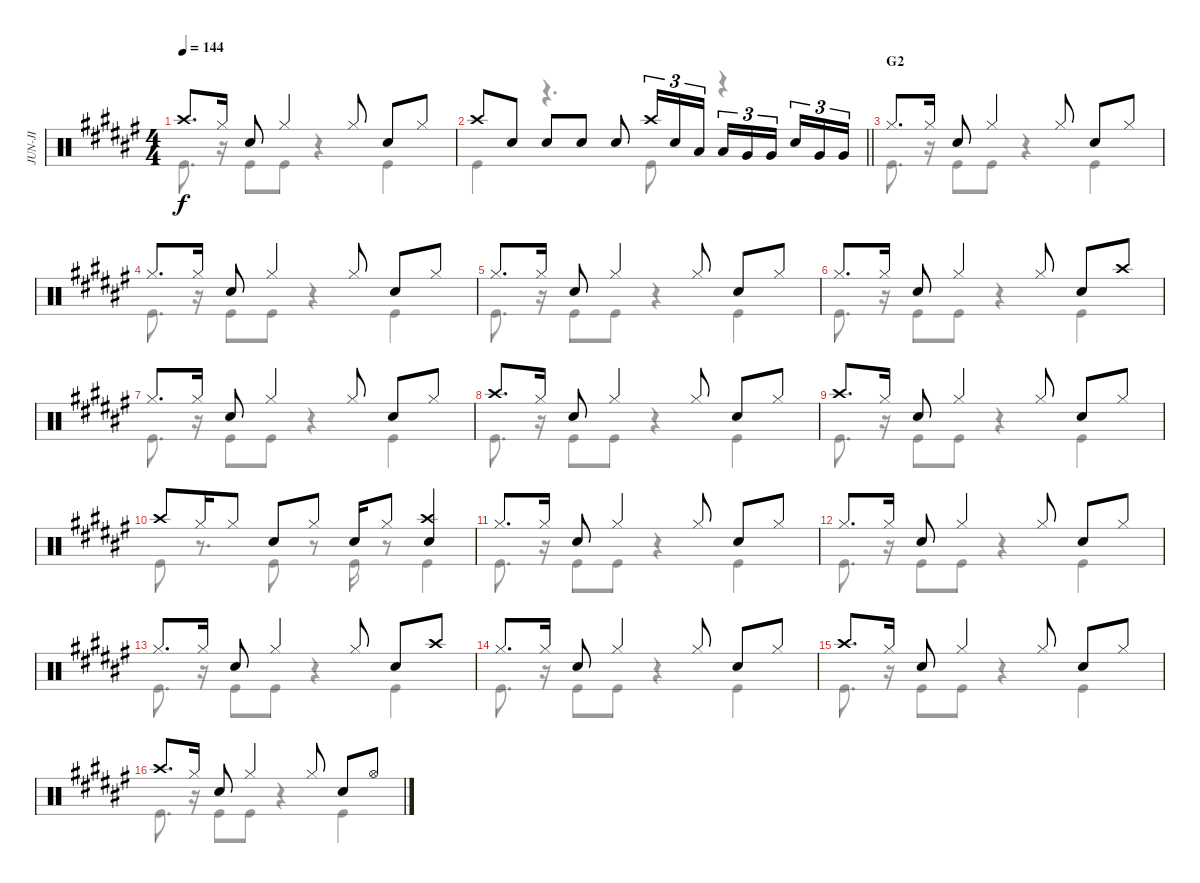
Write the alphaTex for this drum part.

\track ("JUN-JI" "JUN-JI") {instrument percussion}
\staff {score}
\articulation defaults
\voice
\ts (4 4)
\tempo 144
\clef neutral
\ks d#minor "Crash high (hit)".8{d dy f} "Hi-Hat (closed)".16 "Snare (hit) 2".8 "Hi-Hat (closed)".4 "Hi-Hat (closed)".8 "Snare (hit) 2".8 "Hi-Hat (closed)".8
|
\barLineRight lightlight "Crash high (hit)".8 "Snare (hit) 2".8 "Snare (hit) 2".8 "Snare (hit) 2".8 "Snare (hit) 2".8 "Crash high (hit)".16{tu (3 2)} "Snare (hit) 2".16{tu (3 2)} "Low Tom (hit)".16{tu (3 2)} "Low Tom (hit)".16{tu (3 2)} "Very Low Tom (hit)".16{tu (3 2)} "Very Low Tom (hit)".16{tu (3 2) beam splitsecondary} "Snare (hit) 2".16{tu (3 2)} "Very Low Tom (hit)".16{tu (3 2)} "Very Low Tom (hit)".16{tu (3 2)}
|
\section ("" "G2")
"Hi-Hat (closed)".8{d} "Hi-Hat (closed)".16 "Snare (hit) 2".8 "Hi-Hat (closed)".4 "Hi-Hat (closed)".8 "Snare (hit) 2".8 "Hi-Hat (closed)".8 |
"Hi-Hat (closed)".8{d} "Hi-Hat (closed)".16 "Snare (hit) 2".8 "Hi-Hat (closed)".4 "Hi-Hat (closed)".8 "Snare (hit) 2".8 "Hi-Hat (closed)".8 |
"Hi-Hat (closed)".8{d} "Hi-Hat (closed)".16 "Snare (hit) 2".8 "Hi-Hat (closed)".4 "Hi-Hat (closed)".8 "Snare (hit) 2".8 "Hi-Hat (closed)".8 |
"Hi-Hat (closed)".8{d} "Hi-Hat (closed)".16 "Snare (hit) 2".8 "Hi-Hat (closed)".4 "Hi-Hat (closed)".8 "Snare (hit) 2".8 "Crash high (hit)".8 |
"Hi-Hat (closed)".8{d} "Hi-Hat (closed)".16 "Snare (hit) 2".8 "Hi-Hat (closed)".4 "Hi-Hat (closed)".8 "Snare (hit) 2".8 "Hi-Hat (closed)".8 |
"Crash high (hit)".8{d} "Hi-Hat (closed)".16 "Snare (hit) 2".8 "Hi-Hat (closed)".4 "Hi-Hat (closed)".8 "Snare (hit) 2".8 "Hi-Hat (closed)".8 |
"Crash high (hit)".8{d} "Hi-Hat (closed)".16 "Snare (hit) 2".8 "Hi-Hat (closed)".4 "Hi-Hat (closed)".8 "Snare (hit) 2".8 "Hi-Hat (closed)".8 |
"Crash high (hit)".8 "Hi-Hat (closed)".16 "Hi-Hat (closed)".8 "Snare (hit) 2".8 "Hi-Hat (closed)".8 "Snare (hit) 2".16 "Hi-Hat (closed)".8 ("Crash high (hit)" "Snare (hit) 2").4 |
"Hi-Hat (closed)".8{d} "Hi-Hat (closed)".16 "Snare (hit) 2".8 "Hi-Hat (closed)".4 "Hi-Hat (closed)".8 "Snare (hit) 2".8 "Hi-Hat (closed)".8 |
"Hi-Hat (closed)".8{d} "Hi-Hat (closed)".16 "Snare (hit) 2".8 "Hi-Hat (closed)".4 "Hi-Hat (closed)".8 "Snare (hit) 2".8 "Hi-Hat (closed)".8 |
"Hi-Hat (closed)".8{d} "Hi-Hat (closed)".16 "Snare (hit) 2".8 "Hi-Hat (closed)".4 "Hi-Hat (closed)".8 "Snare (hit) 2".8 "Crash high (hit)".8 |
"Hi-Hat (closed)".8{d} "Hi-Hat (closed)".16 "Snare (hit) 2".8 "Hi-Hat (closed)".4 "Hi-Hat (closed)".8 "Snare (hit) 2".8 "Hi-Hat (closed)".8 |
"Crash high (hit)".8{d} "Hi-Hat (closed)".16 "Snare (hit) 2".8 "Hi-Hat (closed)".4 "Hi-Hat (closed)".8 "Snare (hit) 2".8 "Hi-Hat (closed)".8 |
"Crash high (hit)".8{d} "Hi-Hat (closed)".16 "Snare (hit) 2".8 "Hi-Hat (closed)".4 "Hi-Hat (closed)".8 "Snare (hit) 2".8 "Hi-Hat (open)".8
\voice
\clef neutral
\ottava regular
\simile none
\ks d#minor "Kick (hit)".8{d dy f}
r.16 "Kick (hit)".8 "Kick (hit)".8 r.4 "Kick (hit)".4 |
\barLineRight lightlight "Kick (hit)".4
r.4{d} "Kick (hit)".8 r.4 |
"Kick (hit)".8{d} r.16 "Kick (hit)".8 "Kick (hit)".8 r.4 "Kick (hit)".4 |
"Kick (hit)".8{d} r.16 "Kick (hit)".8 "Kick (hit)".8 r.4 "Kick (hit)".4 |
"Kick (hit)".8{d} r.16 "Kick (hit)".8 "Kick (hit)".8 r.4 "Kick (hit)".4 |
"Kick (hit)".8{d} r.16 "Kick (hit)".8 "Kick (hit)".8 r.4 "Kick (hit)".4 |
"Kick (hit)".8{d} r.16 "Kick (hit)".8 "Kick (hit)".8 r.4 "Kick (hit)".4 |
"Kick (hit)".8{d} r.16 "Kick (hit)".8 "Kick (hit)".8 r.4 "Kick (hit)".4 |
"Kick (hit)".8{d} r.16 "Kick (hit)".8 "Kick (hit)".8 r.4 "Kick (hit)".4 |
"Kick (hit)".8 r.8{d} "Kick (hit)".8 r.8 "Kick (hit)".16 r.8 "Kick (hit)".4 |
"Kick (hit)".8{d} r.16 "Kick (hit)".8 "Kick (hit)".8 r.4 "Kick (hit)".4 |
"Kick (hit)".8{d} r.16 "Kick (hit)".8 "Kick (hit)".8 r.4 "Kick (hit)".4 |
"Kick (hit)".8{d} r.16 "Kick (hit)".8 "Kick (hit)".8 r.4 "Kick (hit)".4 |
"Kick (hit)".8{d} r.16 "Kick (hit)".8 "Kick (hit)".8 r.4 "Kick (hit)".4 |
"Kick (hit)".8{d} r.16 "Kick (hit)".8 "Kick (hit)".8 r.4 "Kick (hit)".4 |
"Kick (hit)".8{d} r.16 "Kick (hit)".8 "Kick (hit)".8 r.4 "Kick (hit)".4
